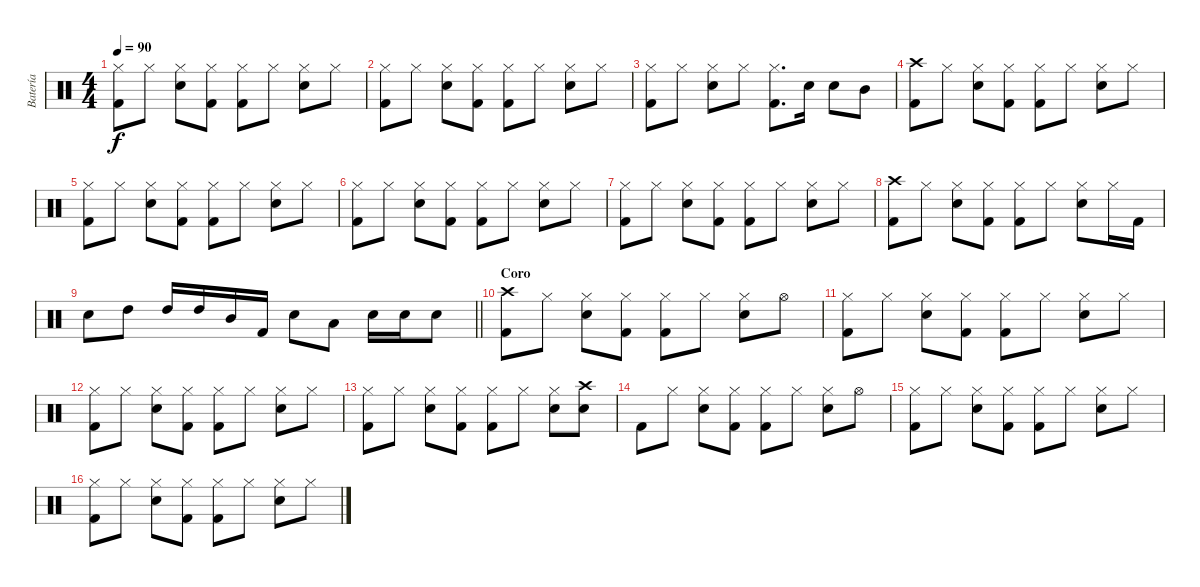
\track ("Batería" "Batería") {instrument percussion}
\staff {score}
\articulation defaults
\ts (4 4)
\tempo 90
\clef neutral
\ks c
("Kick (hit) 2" "Hi-Hat (closed)").8{dy f} "Hi-Hat (closed)".8 ("Electric Snare (hit)" "Hi-Hat (closed)").8 ("Kick (hit) 2" "Hi-Hat (closed)").8 ("Kick (hit) 2" "Hi-Hat (closed)").8 "Hi-Hat (closed)".8 ("Electric Snare (hit)" "Hi-Hat (closed)").8 "Hi-Hat (closed)".8 |
("Kick (hit) 2" "Hi-Hat (closed)").8 "Hi-Hat (closed)".8 ("Electric Snare (hit)" "Hi-Hat (closed)").8 ("Kick (hit) 2" "Hi-Hat (closed)").8 ("Kick (hit) 2" "Hi-Hat (closed)").8 "Hi-Hat (closed)".8 ("Electric Snare (hit)" "Hi-Hat (closed)").8 "Hi-Hat (closed)".8 |
("Kick (hit) 2" "Hi-Hat (closed)").8 "Hi-Hat (closed)".8 ("Electric Snare (hit)" "Hi-Hat (closed)").8 "Hi-Hat (closed)".8 ("Kick (hit) 2" "Hi-Hat (closed)").8{d} "Electric Snare (hit)".16 "Electric Snare (hit)".8 "Mid Tom (hit)".8 |
("Kick (hit) 2" "Crash high (hit)").8 "Hi-Hat (closed)".8 ("Electric Snare (hit)" "Hi-Hat (closed)").8 ("Kick (hit) 2" "Hi-Hat (closed)").8 ("Kick (hit) 2" "Hi-Hat (closed)").8 "Hi-Hat (closed)".8 ("Electric Snare (hit)" "Hi-Hat (closed)").8 "Hi-Hat (closed)".8 |
("Kick (hit) 2" "Hi-Hat (closed)").8 "Hi-Hat (closed)".8 ("Electric Snare (hit)" "Hi-Hat (closed)").8 ("Kick (hit) 2" "Hi-Hat (closed)").8 ("Kick (hit) 2" "Hi-Hat (closed)").8 "Hi-Hat (closed)".8 ("Electric Snare (hit)" "Hi-Hat (closed)").8 "Hi-Hat (closed)".8 |
("Kick (hit) 2" "Hi-Hat (closed)").8 "Hi-Hat (closed)".8 ("Electric Snare (hit)" "Hi-Hat (closed)").8 ("Kick (hit) 2" "Hi-Hat (closed)").8 ("Kick (hit) 2" "Hi-Hat (closed)").8 "Hi-Hat (closed)".8 ("Electric Snare (hit)" "Hi-Hat (closed)").8 "Hi-Hat (closed)".8 |
("Kick (hit) 2" "Hi-Hat (closed)").8 "Hi-Hat (closed)".8 ("Electric Snare (hit)" "Hi-Hat (closed)").8 ("Kick (hit) 2" "Hi-Hat (closed)").8 ("Kick (hit) 2" "Hi-Hat (closed)").8 "Hi-Hat (closed)".8 ("Electric Snare (hit)" "Hi-Hat (closed)").8 "Hi-Hat (closed)".8 |
("Kick (hit) 2" "Crash high (hit)").8 "Hi-Hat (closed)".8 ("Electric Snare (hit)" "Hi-Hat (closed)").8 ("Kick (hit) 2" "Hi-Hat (closed)").8 ("Kick (hit) 2" "Hi-Hat (closed)").8 "Hi-Hat (closed)".8 ("Electric Snare (hit)" "Hi-Hat (closed)").8 "Hi-Hat (closed)".16 "Kick (hit) 2".16 |
\barLineRight lightlight "Electric Snare (hit)".8 "High Tom (hit)".8 "High Tom (hit)".16 "High Tom (hit)".16 "Mid Tom (hit)".16 "Kick (hit) 2".16 "Electric Snare (hit)".8 "Low Tom (hit)".8 "Electric Snare (hit)".16 "Electric Snare (hit)".16 "Electric Snare (hit)".8
|
\section ("" "Coro")
("Kick (hit) 2" "Crash high (hit)").8 "Hi-Hat (closed)".8 ("Electric Snare (hit)" "Hi-Hat (closed)").8 ("Kick (hit) 2" "Hi-Hat (closed)").8 ("Kick (hit) 2" "Hi-Hat (closed)").8 "Hi-Hat (closed)".8 ("Electric Snare (hit)" "Hi-Hat (closed)").8 "Hi-Hat (open)".8 |
("Kick (hit) 2" "Hi-Hat (closed)").8 "Hi-Hat (closed)".8 ("Electric Snare (hit)" "Hi-Hat (closed)").8 ("Kick (hit) 2" "Hi-Hat (closed)").8 ("Kick (hit) 2" "Hi-Hat (closed)").8 "Hi-Hat (closed)".8 ("Electric Snare (hit)" "Hi-Hat (closed)").8 "Hi-Hat (closed)".8 |
("Kick (hit) 2" "Hi-Hat (closed)").8 "Hi-Hat (closed)".8 ("Electric Snare (hit)" "Hi-Hat (closed)").8 ("Kick (hit) 2" "Hi-Hat (closed)").8 ("Kick (hit) 2" "Hi-Hat (closed)").8 "Hi-Hat (closed)".8 ("Electric Snare (hit)" "Hi-Hat (closed)").8 "Hi-Hat (closed)".8 |
("Kick (hit) 2" "Hi-Hat (closed)").8 "Hi-Hat (closed)".8 ("Electric Snare (hit)" "Hi-Hat (closed)").8 ("Kick (hit) 2" "Hi-Hat (closed)").8 ("Kick (hit) 2" "Hi-Hat (closed)").8 "Hi-Hat (closed)".8 ("Electric Snare (hit)" "Hi-Hat (closed)").8 ("Electric Snare (hit)" "Crash high (hit)").8 |
"Kick (hit) 2".8 "Hi-Hat (closed)".8 ("Electric Snare (hit)" "Hi-Hat (closed)").8 ("Kick (hit) 2" "Hi-Hat (closed)").8 ("Kick (hit) 2" "Hi-Hat (closed)").8 "Hi-Hat (closed)".8 ("Electric Snare (hit)" "Hi-Hat (closed)").8 "Hi-Hat (open)".8 |
("Kick (hit) 2" "Hi-Hat (closed)").8 "Hi-Hat (closed)".8 ("Electric Snare (hit)" "Hi-Hat (closed)").8 ("Kick (hit) 2" "Hi-Hat (closed)").8 ("Kick (hit) 2" "Hi-Hat (closed)").8 "Hi-Hat (closed)".8 ("Electric Snare (hit)" "Hi-Hat (closed)").8 "Hi-Hat (closed)".8 |
("Kick (hit) 2" "Hi-Hat (closed)").8 "Hi-Hat (closed)".8 ("Electric Snare (hit)" "Hi-Hat (closed)").8 ("Kick (hit) 2" "Hi-Hat (closed)").8 ("Kick (hit) 2" "Hi-Hat (closed)").8 "Hi-Hat (closed)".8 ("Electric Snare (hit)" "Hi-Hat (closed)").8 "Hi-Hat (closed)".8
